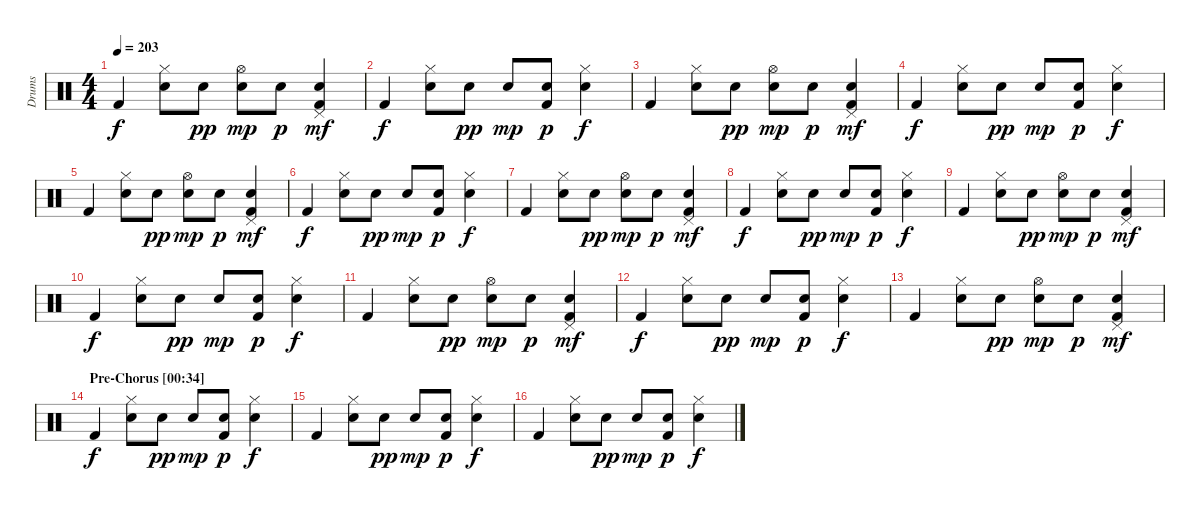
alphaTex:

\track ("Drums" "Drums") {instrument percussion}
\staff {score}
\articulation defaults
\ts (4 4)
\tempo 203
\clef neutral
\ks c "Kick (hit) 2".4{dy f}
("Hi-Hat (closed)" "Electric Snare (hit)").8 "Snare (hit) 2".8{dy pp} ("Hi-Hat (open)" "Snare (hit) 2").8{dy mp} "Snare (hit) 2".8{dy p} ("Pedal Hi-Hat (hit)" "Electric Snare (hit)" "Kick (hit) 2").4{dy mf} |
"Kick (hit) 2".4{dy f} ("Hi-Hat (closed)" "Electric Snare (hit)").8 "Snare (hit) 2".8{dy pp} "Snare (hit) 2".8{dy mp} ("Snare (hit) 2" "Kick (hit) 2").8{dy p} ("Hi-Hat (closed)" "Electric Snare (hit)").4{dy f} |
"Kick (hit) 2".4 ("Hi-Hat (closed)" "Electric Snare (hit)").8 "Snare (hit) 2".8{dy pp} ("Hi-Hat (open)" "Snare (hit) 2").8{dy mp} "Snare (hit) 2".8{dy p} ("Pedal Hi-Hat (hit)" "Electric Snare (hit)" "Kick (hit) 2").4{dy mf} |
"Kick (hit) 2".4{dy f} ("Hi-Hat (closed)" "Electric Snare (hit)").8 "Snare (hit) 2".8{dy pp} "Snare (hit) 2".8{dy mp} ("Snare (hit) 2" "Kick (hit) 2").8{dy p} ("Hi-Hat (closed)" "Electric Snare (hit)").4{dy f} |
"Kick (hit) 2".4 ("Hi-Hat (closed)" "Electric Snare (hit)").8 "Snare (hit) 2".8{dy pp} ("Hi-Hat (open)" "Snare (hit) 2").8{dy mp} "Snare (hit) 2".8{dy p} ("Pedal Hi-Hat (hit)" "Electric Snare (hit)" "Kick (hit) 2").4{dy mf} |
\section ("" "")
"Kick (hit) 2".4{dy f} ("Hi-Hat (closed)" "Electric Snare (hit)").8 "Snare (hit) 2".8{dy pp} "Snare (hit) 2".8{dy mp} ("Snare (hit) 2" "Kick (hit) 2").8{dy p} ("Hi-Hat (closed)" "Electric Snare (hit)").4{dy f} |
"Kick (hit) 2".4 ("Hi-Hat (closed)" "Electric Snare (hit)").8 "Snare (hit) 2".8{dy pp} ("Hi-Hat (open)" "Snare (hit) 2").8{dy mp} "Snare (hit) 2".8{dy p} ("Pedal Hi-Hat (hit)" "Electric Snare (hit)" "Kick (hit) 2").4{dy mf} |
"Kick (hit) 2".4{dy f} ("Hi-Hat (closed)" "Electric Snare (hit)").8 "Snare (hit) 2".8{dy pp} "Snare (hit) 2".8{dy mp} ("Snare (hit) 2" "Kick (hit) 2").8{dy p} ("Hi-Hat (closed)" "Electric Snare (hit)").4{dy f} |
"Kick (hit) 2".4 ("Hi-Hat (closed)" "Electric Snare (hit)").8 "Snare (hit) 2".8{dy pp} ("Hi-Hat (open)" "Snare (hit) 2").8{dy mp} "Snare (hit) 2".8{dy p} ("Pedal Hi-Hat (hit)" "Electric Snare (hit)" "Kick (hit) 2").4{dy mf} |
"Kick (hit) 2".4{dy f} ("Hi-Hat (closed)" "Electric Snare (hit)").8 "Snare (hit) 2".8{dy pp} "Snare (hit) 2".8{dy mp} ("Snare (hit) 2" "Kick (hit) 2").8{dy p} ("Hi-Hat (closed)" "Electric Snare (hit)").4{dy f} |
"Kick (hit) 2".4 ("Hi-Hat (closed)" "Electric Snare (hit)").8 "Snare (hit) 2".8{dy pp} ("Hi-Hat (open)" "Snare (hit) 2").8{dy mp} "Snare (hit) 2".8{dy p} ("Pedal Hi-Hat (hit)" "Electric Snare (hit)" "Kick (hit) 2").4{dy mf} |
"Kick (hit) 2".4{dy f} ("Hi-Hat (closed)" "Electric Snare (hit)").8 "Snare (hit) 2".8{dy pp} "Snare (hit) 2".8{dy mp} ("Snare (hit) 2" "Kick (hit) 2").8{dy p} ("Hi-Hat (closed)" "Electric Snare (hit)").4{dy f} |
"Kick (hit) 2".4 ("Hi-Hat (closed)" "Electric Snare (hit)").8 "Snare (hit) 2".8{dy pp} ("Hi-Hat (open)" "Snare (hit) 2").8{dy mp} "Snare (hit) 2".8{dy p} ("Pedal Hi-Hat (hit)" "Electric Snare (hit)" "Kick (hit) 2").4{dy mf} |
\section ("" "Pre-Chorus [00:34]")
"Kick (hit) 2".4{dy f} ("Hi-Hat (closed)" "Electric Snare (hit)").8 "Snare (hit) 2".8{dy pp} "Snare (hit) 2".8{dy mp} ("Snare (hit) 2" "Kick (hit) 2").8{dy p} ("Hi-Hat (closed)" "Electric Snare (hit)").4{dy f} |
"Kick (hit) 2".4 ("Hi-Hat (closed)" "Electric Snare (hit)").8 "Snare (hit) 2".8{dy pp} "Snare (hit) 2".8{dy mp} ("Snare (hit) 2" "Kick (hit) 2").8{dy p} ("Hi-Hat (closed)" "Electric Snare (hit)").4{dy f} |
"Kick (hit) 2".4 ("Hi-Hat (closed)" "Electric Snare (hit)").8 "Snare (hit) 2".8{dy pp} "Snare (hit) 2".8{dy mp} ("Snare (hit) 2" "Kick (hit) 2").8{dy p} ("Hi-Hat (closed)" "Electric Snare (hit)").4{dy f}
